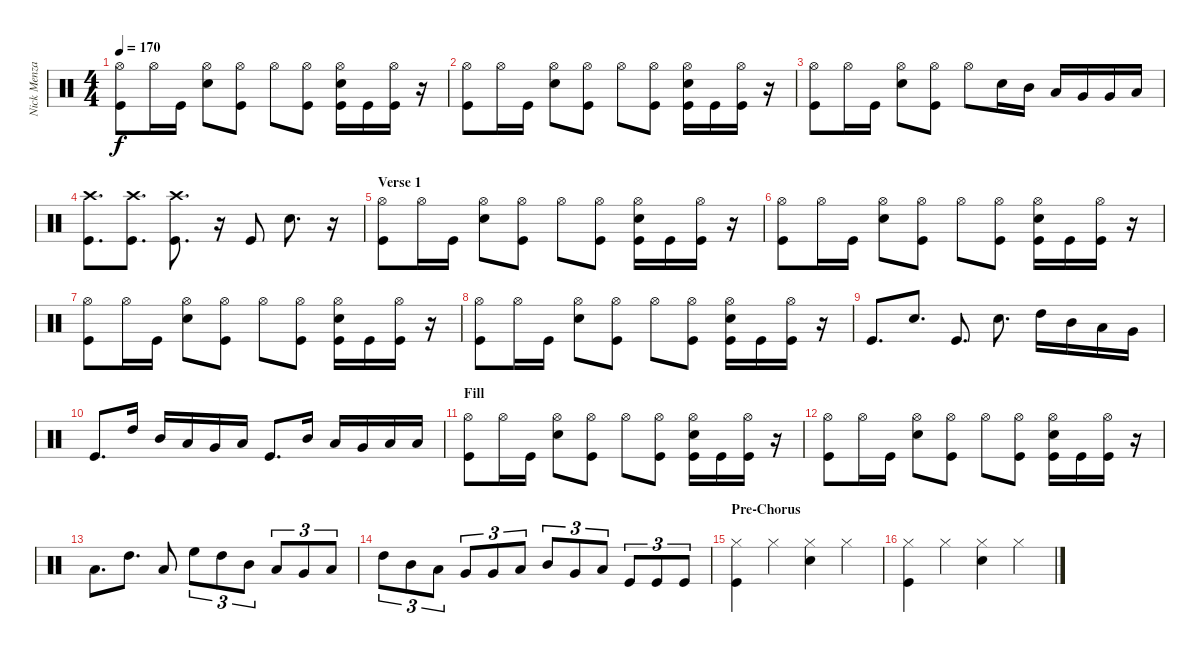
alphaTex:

\track ("Nick Menza" "Nick Menza") {instrument percussion}
\staff {score}
\articulation defaults
\ts (4 4)
\tempo 170
\clef neutral
\ks c
("Hi-Hat (open)" "Kick (hit)").8{dy f} "Hi-Hat (open)".16 "Kick (hit)".16 ("Hi-Hat (open)" "Snare (hit) 2").8 ("Hi-Hat (open)" "Kick (hit)").8 "Hi-Hat (open)".8 ("Hi-Hat (open)" "Kick (hit)").8 ("Hi-Hat (open)" "Snare (hit) 2" "Kick (hit)").16 "Kick (hit)".16 ("Hi-Hat (open)" "Kick (hit)").16 r.16 |
("Hi-Hat (open)" "Kick (hit)").8 "Hi-Hat (open)".16 "Kick (hit)".16 ("Hi-Hat (open)" "Snare (hit) 2").8 ("Hi-Hat (open)" "Kick (hit)").8 "Hi-Hat (open)".8 ("Hi-Hat (open)" "Kick (hit)").8 ("Hi-Hat (open)" "Snare (hit) 2" "Kick (hit)").16 "Kick (hit)".16 ("Hi-Hat (open)" "Kick (hit)").16 r.16 |
("Hi-Hat (open)" "Kick (hit)").8 "Hi-Hat (open)".16 "Kick (hit)".16 ("Hi-Hat (open)" "Snare (hit) 2").8 ("Hi-Hat (open)" "Kick (hit)").8 "Hi-Hat (open)".8 "Snare (hit) 2".16 "Mid Tom (hit)".16 "Low Tom (hit)".16 "Very Low Tom (hit)".16 "Very Low Tom (hit)".16 "Low Floor Tom (hit)".16 |
("Crash high (hit)" "Kick (hit)").8{d} ("Crash high (hit)" "Kick (hit)").8{d} ("Crash high (hit)" "Kick (hit)").8{d} r.16 "Kick (hit)".8 "Snare (hit) 2".8{d} r.16 |
\section ("" "Verse 1")
("Hi-Hat (open)" "Kick (hit)").8 "Hi-Hat (open)".16 "Kick (hit)".16 ("Hi-Hat (open)" "Snare (hit) 2").8 ("Hi-Hat (open)" "Kick (hit)").8 "Hi-Hat (open)".8 ("Hi-Hat (open)" "Kick (hit)").8 ("Hi-Hat (open)" "Snare (hit) 2" "Kick (hit)").16 "Kick (hit)".16 ("Hi-Hat (open)" "Kick (hit)").16 r.16 |
("Hi-Hat (open)" "Kick (hit)").8 "Hi-Hat (open)".16 "Kick (hit)".16 ("Hi-Hat (open)" "Snare (hit) 2").8 ("Hi-Hat (open)" "Kick (hit)").8 "Hi-Hat (open)".8 ("Hi-Hat (open)" "Kick (hit)").8 ("Hi-Hat (open)" "Snare (hit) 2" "Kick (hit)").16 "Kick (hit)".16 ("Hi-Hat (open)" "Kick (hit)").16 r.16 |
("Hi-Hat (open)" "Kick (hit)").8 "Hi-Hat (open)".16 "Kick (hit)".16 ("Hi-Hat (open)" "Snare (hit) 2").8 ("Hi-Hat (open)" "Kick (hit)").8 "Hi-Hat (open)".8 ("Hi-Hat (open)" "Kick (hit)").8 ("Hi-Hat (open)" "Snare (hit) 2" "Kick (hit)").16 "Kick (hit)".16 ("Hi-Hat (open)" "Kick (hit)").16 r.16 |
("Hi-Hat (open)" "Kick (hit)").8 "Hi-Hat (open)".16 "Kick (hit)".16 ("Hi-Hat (open)" "Snare (hit) 2").8 ("Hi-Hat (open)" "Kick (hit)").8 "Hi-Hat (open)".8 ("Hi-Hat (open)" "Kick (hit)").8 ("Hi-Hat (open)" "Snare (hit) 2" "Kick (hit)").16 "Kick (hit)".16 ("Hi-Hat (open)" "Kick (hit)").16 r.16 |
"Kick (hit)".8{d} "Snare (hit) 2".8{d} "Kick (hit)".8{d} "Snare (hit) 2".8{d} "High Tom (hit)".16 "Mid Tom (hit)".16 "Low Tom (hit)".16 "Very Low Tom (hit)".16 |
"Kick (hit)".8{d} "High Tom (hit)".16 "Mid Tom (hit)".16 "Low Tom (hit)".16 "Very Low Tom (hit)".16 "Low Floor Tom (hit)".16 "Kick (hit)".8{d} "Mid Tom (hit)".16 "Low Tom (hit)".16 "Very Low Tom (hit)".16 "Low Floor Tom (hit)".16 "Low Floor Tom (hit)".16 |
\section ("" "Fill")
("Hi-Hat (open)" "Kick (hit)").8 "Hi-Hat (open)".16 "Kick (hit)".16 ("Hi-Hat (open)" "Snare (hit) 2").8 ("Hi-Hat (open)" "Kick (hit)").8 "Hi-Hat (open)".8 ("Hi-Hat (open)" "Kick (hit)").8 ("Hi-Hat (open)" "Snare (hit) 2" "Kick (hit)").16 "Kick (hit)".16 ("Hi-Hat (open)" "Kick (hit)").16 r.16 |
("Hi-Hat (open)" "Kick (hit)").8 "Hi-Hat (open)".16 "Kick (hit)".16 ("Hi-Hat (open)" "Snare (hit) 2").8 ("Hi-Hat (open)" "Kick (hit)").8 "Hi-Hat (open)".8 ("Hi-Hat (open)" "Kick (hit)").8 ("Hi-Hat (open)" "Snare (hit) 2" "Kick (hit)").16 "Kick (hit)".16 ("Hi-Hat (open)" "Kick (hit)").16 r.16 |
"Low Floor Tom (hit)".8{d} "High Tom (hit)".8{d} "Low Floor Tom (hit)".8 "High Floor Tom (hit)".8{tu (3 2)} "High Tom (hit)".8{tu (3 2)} "Mid Tom (hit)".8{tu (3 2)} "Low Tom (hit)".8{tu (3 2)} "Very Low Tom (hit)".8{tu (3 2)} "Low Floor Tom (hit)".8{tu (3 2)} |
"High Tom (hit)".8{tu (3 2)} "Mid Tom (hit)".8{tu (3 2)} "Low Tom (hit)".8{tu (3 2)} "Very Low Tom (hit)".8{tu (3 2)} "Very Low Tom (hit)".8{tu (3 2)} "Low Floor Tom (hit)".8{tu (3 2)} "Mid Tom (hit)".8{tu (3 2)} "Very Low Tom (hit)".8{tu (3 2)} "Low Floor Tom (hit)".8{tu (3 2)} "Kick (hit)".8{tu (3 2)} "Kick (hit)".8{tu (3 2)} "Kick (hit)".8{tu (3 2)} |
\section ("" "Pre-Chorus")
("Hi-Hat (closed)" "Kick (hit)").4 "Hi-Hat (closed)".4 ("Hi-Hat (closed)" "Snare (hit) 2").4 "Hi-Hat (closed)".4 |
("Hi-Hat (closed)" "Kick (hit)").4 "Hi-Hat (closed)".4 ("Hi-Hat (closed)" "Snare (hit) 2").4 "Hi-Hat (closed)".4
